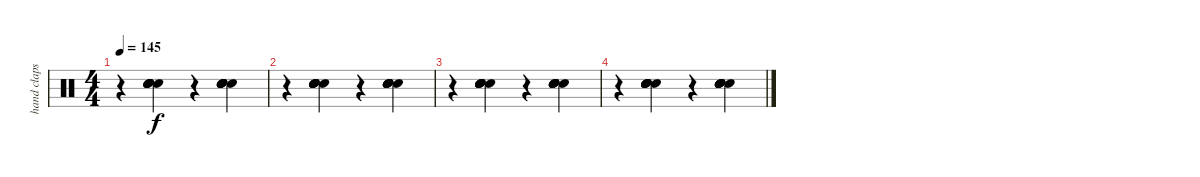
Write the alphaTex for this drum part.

\track ("hand claps" "hand claps") {instrument percussion}
\staff {score}
\articulation defaults
\ts (4 4)
\tempo 145
\clef neutral
\ks c
r.4{dy f} ("Hand Clap (hit)" "Hand Clap (hit)" "Hand Clap (hit)" "Hand Clap (hit)" "Hand Clap (hit)" "Hand Clap (hit)").4 r.4 ("Hand Clap (hit)" "Hand Clap (hit)" "Hand Clap (hit)" "Hand Clap (hit)" "Hand Clap (hit)" "Hand Clap (hit)").4 |
r.4 ("Hand Clap (hit)" "Hand Clap (hit)" "Hand Clap (hit)" "Hand Clap (hit)" "Hand Clap (hit)" "Hand Clap (hit)").4 r.4 ("Hand Clap (hit)" "Hand Clap (hit)" "Hand Clap (hit)" "Hand Clap (hit)" "Hand Clap (hit)" "Hand Clap (hit)").4 |
r.4 ("Hand Clap (hit)" "Hand Clap (hit)" "Hand Clap (hit)" "Hand Clap (hit)" "Hand Clap (hit)" "Hand Clap (hit)").4 r.4 ("Hand Clap (hit)" "Hand Clap (hit)" "Hand Clap (hit)" "Hand Clap (hit)" "Hand Clap (hit)" "Hand Clap (hit)").4 |
r.4 ("Hand Clap (hit)" "Hand Clap (hit)" "Hand Clap (hit)" "Hand Clap (hit)" "Hand Clap (hit)" "Hand Clap (hit)").4 r.4 ("Hand Clap (hit)" "Hand Clap (hit)" "Hand Clap (hit)" "Hand Clap (hit)" "Hand Clap (hit)" "Hand Clap (hit)").4
